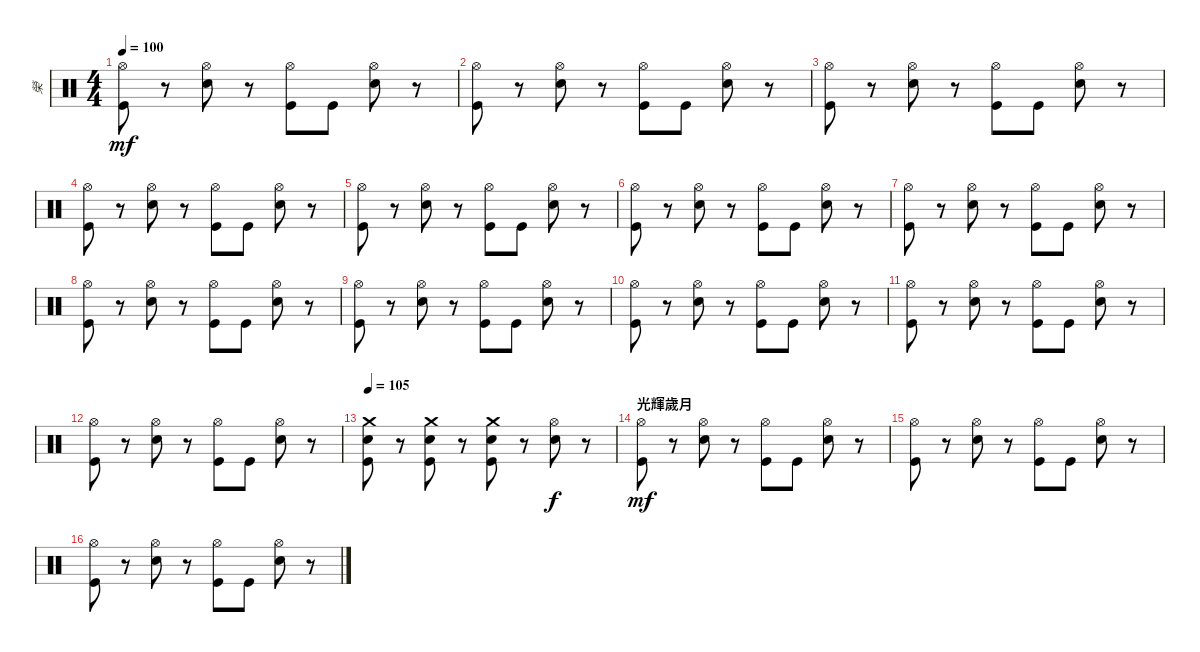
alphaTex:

\track ("榮" "榮") {instrument percussion}
\staff {score}
\articulation defaults
\ts (4 4)
\tempo 100
\clef neutral
\ks c
("Hi-Hat (open)" "Kick (hit)").8{dy mf} r.8 ("Hi-Hat (open)" "Snare (hit) 2").8 r.8 ("Hi-Hat (open)" "Kick (hit)").8 "Kick (hit)".8 ("Hi-Hat (open)" "Snare (hit) 2").8 r.8 |
("Hi-Hat (open)" "Kick (hit)").8 r.8 ("Hi-Hat (open)" "Snare (hit) 2").8 r.8 ("Hi-Hat (open)" "Kick (hit)").8 "Kick (hit)".8 ("Hi-Hat (open)" "Snare (hit) 2").8 r.8 |
("Hi-Hat (open)" "Kick (hit)").8 r.8 ("Hi-Hat (open)" "Snare (hit) 2").8 r.8 ("Hi-Hat (open)" "Kick (hit)").8 "Kick (hit)".8 ("Hi-Hat (open)" "Snare (hit) 2").8 r.8 |
("Hi-Hat (open)" "Kick (hit)").8 r.8 ("Hi-Hat (open)" "Snare (hit) 2").8 r.8 ("Hi-Hat (open)" "Kick (hit)").8 "Kick (hit)".8 ("Hi-Hat (open)" "Snare (hit) 2").8 r.8 |
("Hi-Hat (open)" "Kick (hit)").8 r.8 ("Hi-Hat (open)" "Snare (hit) 2").8 r.8 ("Hi-Hat (open)" "Kick (hit)").8 "Kick (hit)".8 ("Hi-Hat (open)" "Snare (hit) 2").8 r.8 |
("Hi-Hat (open)" "Kick (hit)").8 r.8 ("Hi-Hat (open)" "Snare (hit) 2").8 r.8 ("Hi-Hat (open)" "Kick (hit)").8 "Kick (hit)".8 ("Hi-Hat (open)" "Snare (hit) 2").8 r.8 |
("Hi-Hat (open)" "Kick (hit)").8 r.8 ("Hi-Hat (open)" "Snare (hit) 2").8 r.8 ("Hi-Hat (open)" "Kick (hit)").8 "Kick (hit)".8 ("Hi-Hat (open)" "Snare (hit) 2").8 r.8 |
("Hi-Hat (open)" "Kick (hit)").8 r.8 ("Hi-Hat (open)" "Snare (hit) 2").8 r.8 ("Hi-Hat (open)" "Kick (hit)").8 "Kick (hit)".8 ("Hi-Hat (open)" "Snare (hit) 2").8 r.8 |
("Hi-Hat (open)" "Kick (hit)").8 r.8 ("Hi-Hat (open)" "Snare (hit) 2").8 r.8 ("Hi-Hat (open)" "Kick (hit)").8 "Kick (hit)".8 ("Hi-Hat (open)" "Snare (hit) 2").8 r.8 |
("Hi-Hat (open)" "Kick (hit)").8 r.8 ("Hi-Hat (open)" "Snare (hit) 2").8 r.8 ("Hi-Hat (open)" "Kick (hit)").8 "Kick (hit)".8 ("Hi-Hat (open)" "Snare (hit) 2").8 r.8 |
("Hi-Hat (open)" "Kick (hit)").8 r.8 ("Hi-Hat (open)" "Snare (hit) 2").8 r.8 ("Hi-Hat (open)" "Kick (hit)").8 "Kick (hit)".8 ("Hi-Hat (open)" "Snare (hit) 2").8 r.8 |
("Hi-Hat (open)" "Kick (hit)").8 r.8 ("Hi-Hat (open)" "Snare (hit) 2").8 r.8 ("Hi-Hat (open)" "Kick (hit)").8 "Kick (hit)".8 ("Hi-Hat (open)" "Snare (hit) 2").8 r.8 |
\tempo 105
("Crash medium (hit)" "Snare (hit) 2" "Kick (hit)").8 r.8 ("Crash medium (hit)" "Snare (hit) 2" "Kick (hit)").8 r.8 ("Crash medium (hit)" "Snare (hit) 2" "Kick (hit)").8 r.8 ("Hi-Hat (open)" "Snare (hit) 2").8{dy f} r.8 |
\section ("" "光輝歲月  ")
("Hi-Hat (open)" "Kick (hit)").8{dy mf} r.8 ("Hi-Hat (open)" "Snare (hit) 2").8 r.8 ("Hi-Hat (open)" "Kick (hit)").8 "Kick (hit)".8 ("Hi-Hat (open)" "Snare (hit) 2").8 r.8 |
("Hi-Hat (open)" "Kick (hit)").8 r.8 ("Hi-Hat (open)" "Snare (hit) 2").8 r.8 ("Hi-Hat (open)" "Kick (hit)").8 "Kick (hit)".8 ("Hi-Hat (open)" "Snare (hit) 2").8 r.8 |
("Hi-Hat (open)" "Kick (hit)").8 r.8 ("Hi-Hat (open)" "Snare (hit) 2").8 r.8 ("Hi-Hat (open)" "Kick (hit)").8 "Kick (hit)".8 ("Hi-Hat (open)" "Snare (hit) 2").8 r.8
